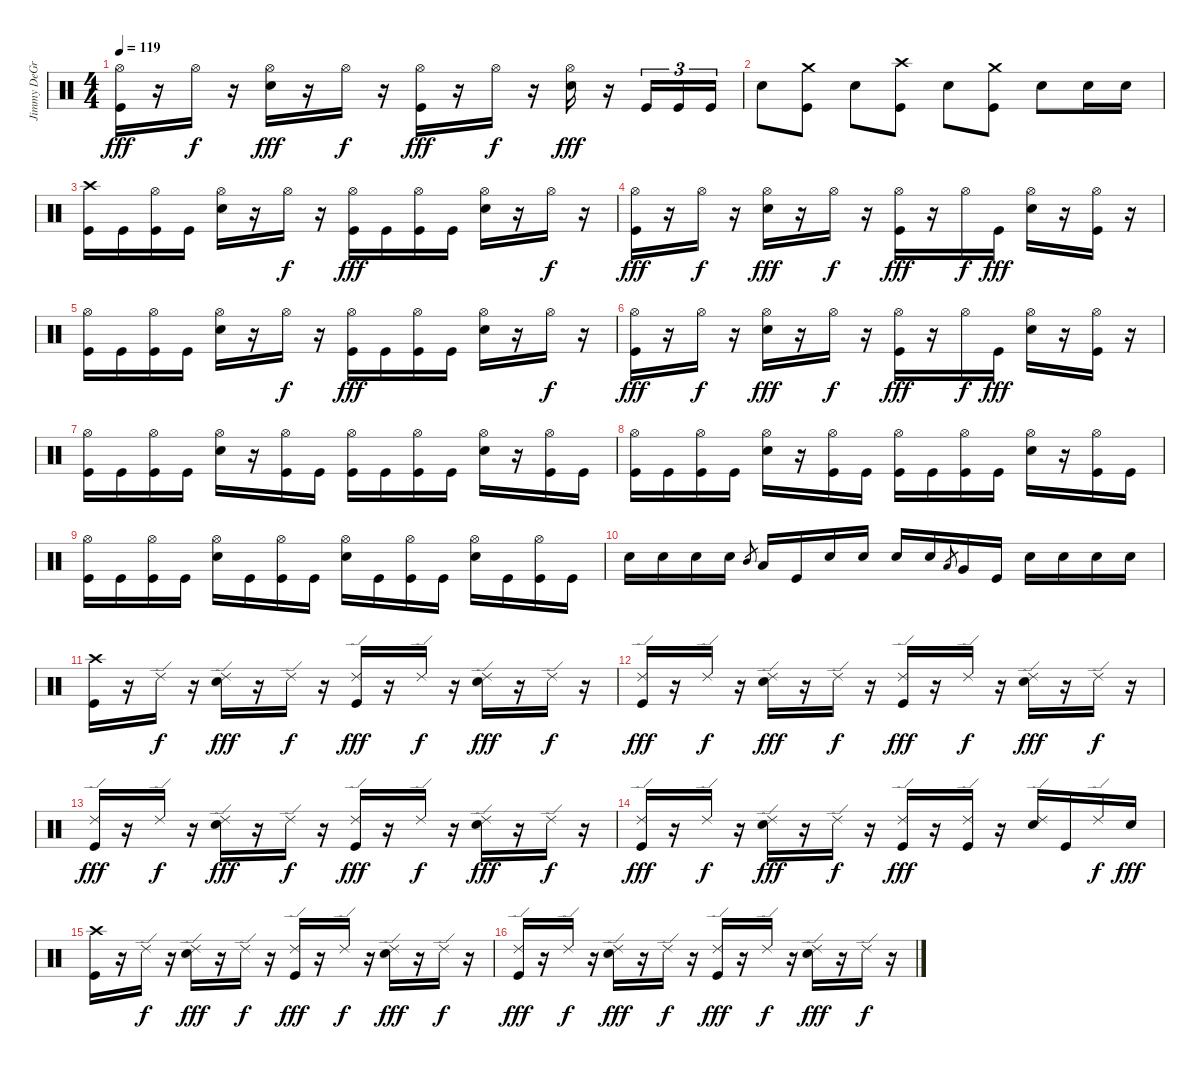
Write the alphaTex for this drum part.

\track ("Jimmy DeGrasso" "Jimmy DeGr") {instrument percussion}
\staff {score}
\articulation defaults
\ts (4 4)
\tempo 119
\clef neutral
\ks c
("Kick (hit)" "Hi-Hat (open)").16{dy fff} r.16 "Hi-Hat (open)".16{dy f} r.16 ("Electric Snare (hit)" "Hi-Hat (open)").16{dy fff} r.16 "Hi-Hat (open)".16{dy f} r.16 ("Kick (hit)" "Hi-Hat (open)").16{dy fff} r.16 "Hi-Hat (open)".16{dy f} r.16 ("Electric Snare (hit)" "Hi-Hat (open)").16{dy fff} r.16 "Kick (hit)".16{tu (3 2)} "Kick (hit)".16{tu (3 2)} "Kick (hit)".16{tu (3 2)} |
"Electric Snare (hit)".8 ("Kick (hit)" "Crash medium (hit)").8 "Electric Snare (hit)".8 ("Kick (hit)" "Crash high (hit)").8 "Electric Snare (hit)".8 ("Kick (hit)" "Crash medium (hit)").8 "Electric Snare (hit)".8 "Electric Snare (hit)".16 "Electric Snare (hit)".16 |
("Kick (hit)" "Crash high (hit)").16 "Kick (hit)".16 ("Kick (hit)" "Hi-Hat (open)").16 "Kick (hit)".16 ("Electric Snare (hit)" "Hi-Hat (open)").16 r.16 "Hi-Hat (open)".16{dy f} r.16 ("Kick (hit)" "Hi-Hat (open)").16{dy fff} "Kick (hit)".16 ("Kick (hit)" "Hi-Hat (open)").16 "Kick (hit)".16 ("Electric Snare (hit)" "Hi-Hat (open)").16 r.16 "Hi-Hat (open)".16{dy f} r.16 |
("Kick (hit)" "Hi-Hat (open)").16{dy fff} r.16 "Hi-Hat (open)".16{dy f} r.16 ("Electric Snare (hit)" "Hi-Hat (open)").16{dy fff} r.16 "Hi-Hat (open)".16{dy f} r.16 ("Kick (hit)" "Hi-Hat (open)").16{dy fff} r.16 "Hi-Hat (open)".16{dy f} "Kick (hit)".16{dy fff} ("Electric Snare (hit)" "Hi-Hat (open)").16 r.16 ("Kick (hit)" "Hi-Hat (open)").16 r.16 |
("Kick (hit)" "Hi-Hat (open)").16 "Kick (hit)".16 ("Kick (hit)" "Hi-Hat (open)").16 "Kick (hit)".16 ("Electric Snare (hit)" "Hi-Hat (open)").16 r.16 "Hi-Hat (open)".16{dy f} r.16 ("Kick (hit)" "Hi-Hat (open)").16{dy fff} "Kick (hit)".16 ("Kick (hit)" "Hi-Hat (open)").16 "Kick (hit)".16 ("Electric Snare (hit)" "Hi-Hat (open)").16 r.16 "Hi-Hat (open)".16{dy f} r.16 |
("Kick (hit)" "Hi-Hat (open)").16{dy fff} r.16 "Hi-Hat (open)".16{dy f} r.16 ("Electric Snare (hit)" "Hi-Hat (open)").16{dy fff} r.16 "Hi-Hat (open)".16{dy f} r.16 ("Kick (hit)" "Hi-Hat (open)").16{dy fff} r.16 "Hi-Hat (open)".16{dy f} "Kick (hit)".16{dy fff} ("Electric Snare (hit)" "Hi-Hat (open)").16 r.16 ("Kick (hit)" "Hi-Hat (open)").16 r.16 |
("Kick (hit)" "Hi-Hat (open)").16 "Kick (hit)".16 ("Kick (hit)" "Hi-Hat (open)").16 "Kick (hit)".16 ("Electric Snare (hit)" "Hi-Hat (open)").16 r.16 ("Kick (hit)" "Hi-Hat (open)").16 "Kick (hit)".16 ("Kick (hit)" "Hi-Hat (open)").16 "Kick (hit)".16 ("Kick (hit)" "Hi-Hat (open)").16 "Kick (hit)".16 ("Electric Snare (hit)" "Hi-Hat (open)").16 r.16 ("Kick (hit)" "Hi-Hat (open)").16 "Kick (hit)".16 |
("Kick (hit)" "Hi-Hat (open)").16 "Kick (hit)".16 ("Kick (hit)" "Hi-Hat (open)").16 "Kick (hit)".16 ("Electric Snare (hit)" "Hi-Hat (open)").16 r.16 ("Kick (hit)" "Hi-Hat (open)").16 "Kick (hit)".16 ("Kick (hit)" "Hi-Hat (open)").16 "Kick (hit)".16 ("Kick (hit)" "Hi-Hat (open)").16 "Kick (hit)".16 ("Electric Snare (hit)" "Hi-Hat (open)").16 r.16 ("Kick (hit)" "Hi-Hat (open)").16 "Kick (hit)".16 |
("Kick (hit)" "Hi-Hat (open)").16 "Kick (hit)".16 ("Kick (hit)" "Hi-Hat (open)").16 "Kick (hit)".16 ("Electric Snare (hit)" "Hi-Hat (open)").16 "Kick (hit)".16 ("Kick (hit)" "Hi-Hat (open)").16 "Kick (hit)".16 ("Electric Snare (hit)" "Hi-Hat (open)").16 "Kick (hit)".16 ("Kick (hit)" "Hi-Hat (open)").16 "Kick (hit)".16 ("Electric Snare (hit)" "Hi-Hat (open)").16 "Kick (hit)".16 ("Kick (hit)" "Hi-Hat (open)").16 "Kick (hit)".16 |
"Electric Snare (hit)".16 "Electric Snare (hit)".16 "Electric Snare (hit)".16 "Electric Snare (hit)".16 "Mid Tom (hit)".8{gr} "Low Tom (hit)".16 "Kick (hit)".16 "Electric Snare (hit)".16 "Electric Snare (hit)".16 "Electric Snare (hit)".16 "Electric Snare (hit)".16 "Low Tom (hit)".8{gr} "Very Low Tom (hit)".16 "Kick (hit)".16 "Electric Snare (hit)".16 "Electric Snare (hit)".16 "Electric Snare (hit)".16 "Electric Snare (hit)".16 |
("Kick (hit)" "Crash high (hit)").16 r.16 "Ride (edge) 2".16{dy f} r.16 ("Electric Snare (hit)" "Ride (edge) 2").16{dy fff} r.16 "Ride (edge) 2".16{dy f} r.16 ("Kick (hit)" "Ride (edge) 2").16{dy fff} r.16 "Ride (edge) 2".16{dy f} r.16 ("Electric Snare (hit)" "Ride (edge) 2").16{dy fff} r.16 "Ride (edge) 2".16{dy f} r.16 |
("Kick (hit)" "Ride (edge) 2").16{dy fff} r.16 "Ride (edge) 2".16{dy f} r.16 ("Electric Snare (hit)" "Ride (edge) 2").16{dy fff} r.16 "Ride (edge) 2".16{dy f} r.16 ("Kick (hit)" "Ride (edge) 2").16{dy fff} r.16 "Ride (edge) 2".16{dy f} r.16 ("Electric Snare (hit)" "Ride (edge) 2").16{dy fff} r.16 "Ride (edge) 2".16{dy f} r.16 |
("Kick (hit)" "Ride (edge) 2").16{dy fff} r.16 "Ride (edge) 2".16{dy f} r.16 ("Electric Snare (hit)" "Ride (edge) 2").16{dy fff} r.16 "Ride (edge) 2".16{dy f} r.16 ("Kick (hit)" "Ride (edge) 2").16{dy fff} r.16 "Ride (edge) 2".16{dy f} r.16 ("Electric Snare (hit)" "Ride (edge) 2").16{dy fff} r.16 "Ride (edge) 2".16{dy f} r.16 |
("Kick (hit)" "Ride (edge) 2").16{dy fff} r.16 "Ride (edge) 2".16{dy f} r.16 ("Electric Snare (hit)" "Ride (edge) 2").16{dy fff} r.16 "Ride (edge) 2".16{dy f} r.16 ("Kick (hit)" "Ride (edge) 2").16{dy fff} r.16 ("Kick (hit)" "Ride (edge) 2").16 r.16 ("Electric Snare (hit)" "Ride (edge) 2").16 "Kick (hit)".16 "Ride (edge) 2".16{dy f} "Electric Snare (hit)".16{dy fff} |
("Kick (hit)" "Crash high (hit)").16 r.16 "Ride (edge) 2".16{dy f} r.16 ("Electric Snare (hit)" "Ride (edge) 2").16{dy fff} r.16 "Ride (edge) 2".16{dy f} r.16 ("Kick (hit)" "Ride (edge) 2").16{dy fff} r.16 "Ride (edge) 2".16{dy f} r.16 ("Electric Snare (hit)" "Ride (edge) 2").16{dy fff} r.16 "Ride (edge) 2".16{dy f} r.16 |
("Kick (hit)" "Ride (edge) 2").16{dy fff} r.16 "Ride (edge) 2".16{dy f} r.16 ("Electric Snare (hit)" "Ride (edge) 2").16{dy fff} r.16 "Ride (edge) 2".16{dy f} r.16 ("Kick (hit)" "Ride (edge) 2").16{dy fff} r.16 "Ride (edge) 2".16{dy f} r.16 ("Electric Snare (hit)" "Ride (edge) 2").16{dy fff} r.16 "Ride (edge) 2".16{dy f} r.16
